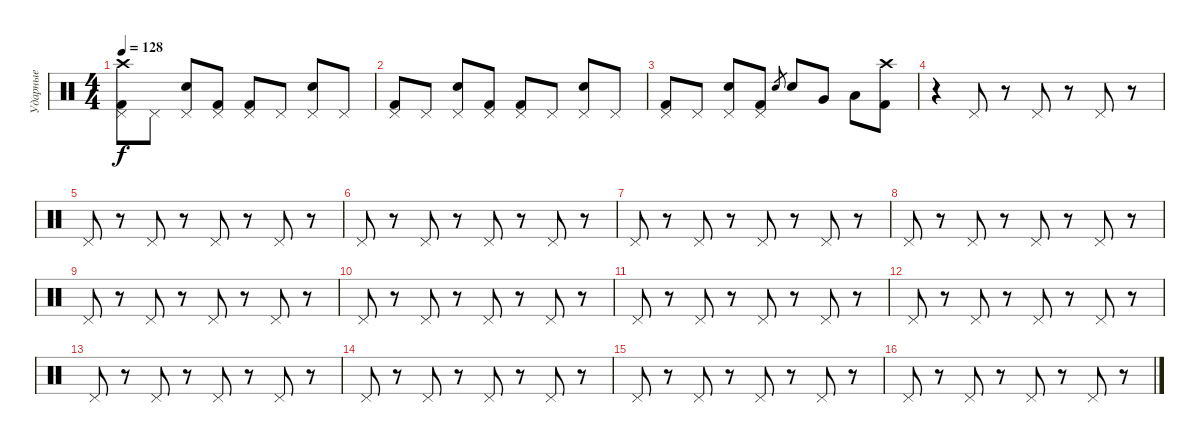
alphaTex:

\track ("Ударные" "Ударные") {instrument percussion}
\staff {score}
\articulation defaults
\ts (4 4)
\tempo 128
\clef neutral
\ks c
("Kick (hit) 2" "Pedal Hi-Hat (hit)" "Crash high (hit)").8{dy f} "Pedal Hi-Hat (hit)".8 ("Pedal Hi-Hat (hit)" "Electric Snare (hit)").8 ("Kick (hit) 2" "Pedal Hi-Hat (hit)").8 ("Kick (hit) 2" "Pedal Hi-Hat (hit)").8 "Pedal Hi-Hat (hit)".8 ("Pedal Hi-Hat (hit)" "Electric Snare (hit)").8 "Pedal Hi-Hat (hit)".8 |
("Kick (hit) 2" "Pedal Hi-Hat (hit)").8 "Pedal Hi-Hat (hit)".8 ("Pedal Hi-Hat (hit)" "Electric Snare (hit)").8 ("Kick (hit) 2" "Pedal Hi-Hat (hit)").8 ("Kick (hit) 2" "Pedal Hi-Hat (hit)").8 "Pedal Hi-Hat (hit)".8 ("Pedal Hi-Hat (hit)" "Electric Snare (hit)").8 "Pedal Hi-Hat (hit)".8 |
("Kick (hit) 2" "Pedal Hi-Hat (hit)").8 "Pedal Hi-Hat (hit)".8 ("Pedal Hi-Hat (hit)" "Electric Snare (hit)").8 ("Kick (hit) 2" "Pedal Hi-Hat (hit)").8 "Electric Snare (hit)".8{gr} "Electric Snare (hit)".8 "Very Low Tom (hit)".8 "Low Floor Tom (hit)".8 ("Kick (hit) 2" "Crash high (hit)").8 |
r.4 "Pedal Hi-Hat (hit)".8 r.8 "Pedal Hi-Hat (hit)".8 r.8 "Pedal Hi-Hat (hit)".8 r.8 |
"Pedal Hi-Hat (hit)".8 r.8 "Pedal Hi-Hat (hit)".8 r.8 "Pedal Hi-Hat (hit)".8 r.8 "Pedal Hi-Hat (hit)".8 r.8 |
"Pedal Hi-Hat (hit)".8 r.8 "Pedal Hi-Hat (hit)".8 r.8 "Pedal Hi-Hat (hit)".8 r.8 "Pedal Hi-Hat (hit)".8 r.8 |
"Pedal Hi-Hat (hit)".8 r.8 "Pedal Hi-Hat (hit)".8 r.8 "Pedal Hi-Hat (hit)".8 r.8 "Pedal Hi-Hat (hit)".8 r.8 |
"Pedal Hi-Hat (hit)".8 r.8 "Pedal Hi-Hat (hit)".8 r.8 "Pedal Hi-Hat (hit)".8 r.8 "Pedal Hi-Hat (hit)".8 r.8 |
"Pedal Hi-Hat (hit)".8 r.8 "Pedal Hi-Hat (hit)".8 r.8 "Pedal Hi-Hat (hit)".8 r.8 "Pedal Hi-Hat (hit)".8 r.8 |
"Pedal Hi-Hat (hit)".8 r.8 "Pedal Hi-Hat (hit)".8 r.8 "Pedal Hi-Hat (hit)".8 r.8 "Pedal Hi-Hat (hit)".8 r.8 |
"Pedal Hi-Hat (hit)".8 r.8 "Pedal Hi-Hat (hit)".8 r.8 "Pedal Hi-Hat (hit)".8 r.8 "Pedal Hi-Hat (hit)".8 r.8 |
"Pedal Hi-Hat (hit)".8 r.8 "Pedal Hi-Hat (hit)".8 r.8 "Pedal Hi-Hat (hit)".8 r.8 "Pedal Hi-Hat (hit)".8 r.8 |
"Pedal Hi-Hat (hit)".8 r.8 "Pedal Hi-Hat (hit)".8 r.8 "Pedal Hi-Hat (hit)".8 r.8 "Pedal Hi-Hat (hit)".8 r.8 |
"Pedal Hi-Hat (hit)".8 r.8 "Pedal Hi-Hat (hit)".8 r.8 "Pedal Hi-Hat (hit)".8 r.8 "Pedal Hi-Hat (hit)".8 r.8 |
"Pedal Hi-Hat (hit)".8 r.8 "Pedal Hi-Hat (hit)".8 r.8 "Pedal Hi-Hat (hit)".8 r.8 "Pedal Hi-Hat (hit)".8 r.8 |
"Pedal Hi-Hat (hit)".8 r.8 "Pedal Hi-Hat (hit)".8 r.8 "Pedal Hi-Hat (hit)".8 r.8 "Pedal Hi-Hat (hit)".8 r.8
